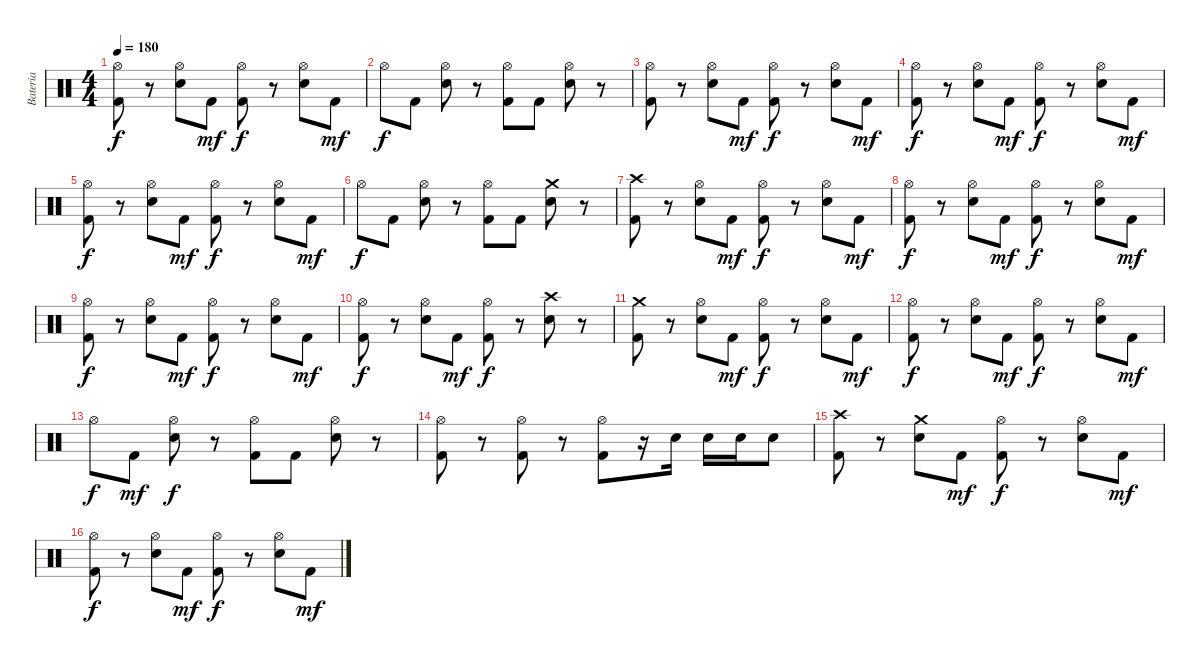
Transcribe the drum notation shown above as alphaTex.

\track ("Bateria" "Bateria") {instrument percussion}
\staff {score}
\articulation defaults
\ts (4 4)
\tempo 180
\clef neutral
\ks c
("Hi-Hat (open)" "Kick (hit) 2").8{dy f} r.8 ("Hi-Hat (open)" "Electric Snare (hit)").8 "Kick (hit) 2".8{dy mf} ("Hi-Hat (open)" "Kick (hit) 2").8{dy f} r.8 ("Hi-Hat (open)" "Electric Snare (hit)").8 "Kick (hit) 2".8{dy mf} |
"Hi-Hat (open)".8{dy f} "Kick (hit) 2".8 ("Hi-Hat (open)" "Electric Snare (hit)").8 r.8 ("Hi-Hat (open)" "Kick (hit) 2").8 "Kick (hit) 2".8 ("Hi-Hat (open)" "Electric Snare (hit)").8 r.8 |
("Hi-Hat (open)" "Kick (hit) 2").8 r.8 ("Hi-Hat (open)" "Electric Snare (hit)").8 "Kick (hit) 2".8{dy mf} ("Hi-Hat (open)" "Kick (hit) 2").8{dy f} r.8 ("Hi-Hat (open)" "Electric Snare (hit)").8 "Kick (hit) 2".8{dy mf} |
("Hi-Hat (open)" "Kick (hit) 2").8{dy f} r.8 ("Hi-Hat (open)" "Electric Snare (hit)").8 "Kick (hit) 2".8{dy mf} ("Hi-Hat (open)" "Kick (hit) 2").8{dy f} r.8 ("Hi-Hat (open)" "Electric Snare (hit)").8 "Kick (hit) 2".8{dy mf} |
("Hi-Hat (open)" "Kick (hit) 2").8{dy f} r.8 ("Hi-Hat (open)" "Electric Snare (hit)").8 "Kick (hit) 2".8{dy mf} ("Hi-Hat (open)" "Kick (hit) 2").8{dy f} r.8 ("Hi-Hat (open)" "Electric Snare (hit)").8 "Kick (hit) 2".8{dy mf} |
"Hi-Hat (open)".8{dy f} "Kick (hit) 2".8 ("Hi-Hat (open)" "Electric Snare (hit)").8 r.8 ("Hi-Hat (open)" "Kick (hit) 2").8 "Kick (hit) 2".8 ("Crash medium (hit)" "Electric Snare (hit)").8 r.8 |
("Crash high (hit)" "Kick (hit) 2").8 r.8 ("Hi-Hat (open)" "Electric Snare (hit)").8 "Kick (hit) 2".8{dy mf} ("Hi-Hat (open)" "Kick (hit) 2").8{dy f} r.8 ("Hi-Hat (open)" "Electric Snare (hit)").8 "Kick (hit) 2".8{dy mf} |
("Hi-Hat (open)" "Kick (hit) 2").8{dy f} r.8 ("Hi-Hat (open)" "Electric Snare (hit)").8 "Kick (hit) 2".8{dy mf} ("Hi-Hat (open)" "Kick (hit) 2").8{dy f} r.8 ("Hi-Hat (open)" "Electric Snare (hit)").8 "Kick (hit) 2".8{dy mf} |
("Hi-Hat (open)" "Kick (hit) 2").8{dy f} r.8 ("Hi-Hat (open)" "Electric Snare (hit)").8 "Kick (hit) 2".8{dy mf} ("Hi-Hat (open)" "Kick (hit) 2").8{dy f} r.8 ("Hi-Hat (open)" "Electric Snare (hit)").8 "Kick (hit) 2".8{dy mf} |
("Hi-Hat (open)" "Kick (hit) 2").8{dy f} r.8 ("Hi-Hat (open)" "Electric Snare (hit)").8 "Kick (hit) 2".8{dy mf} ("Hi-Hat (open)" "Kick (hit) 2").8{dy f} r.8 ("Crash high (hit)" "Electric Snare (hit)").8 r.8 |
("Crash medium (hit)" "Kick (hit) 2").8 r.8 ("Hi-Hat (open)" "Electric Snare (hit)").8 "Kick (hit) 2".8{dy mf} ("Hi-Hat (open)" "Kick (hit) 2").8{dy f} r.8 ("Hi-Hat (open)" "Electric Snare (hit)").8 "Kick (hit) 2".8{dy mf} |
("Hi-Hat (open)" "Kick (hit) 2").8{dy f} r.8 ("Hi-Hat (open)" "Electric Snare (hit)").8 "Kick (hit) 2".8{dy mf} ("Hi-Hat (open)" "Kick (hit) 2").8{dy f} r.8 ("Hi-Hat (open)" "Electric Snare (hit)").8 "Kick (hit) 2".8{dy mf} |
"Hi-Hat (open)".8{dy f} "Kick (hit) 2".8{dy mf} ("Hi-Hat (open)" "Electric Snare (hit)").8{dy f} r.8 ("Hi-Hat (open)" "Kick (hit) 2").8 "Kick (hit) 2".8 ("Hi-Hat (open)" "Electric Snare (hit)").8 r.8 |
("Hi-Hat (open)" "Kick (hit) 2").8 r.8 ("Hi-Hat (open)" "Kick (hit) 2").8 r.8 ("Hi-Hat (open)" "Kick (hit) 2").8 r.16 "Electric Snare (hit)".16 "Electric Snare (hit)".16 "Electric Snare (hit)".16 "Electric Snare (hit)".8 |
("Crash high (hit)" "Kick (hit) 2").8 r.8 ("Crash medium (hit)" "Electric Snare (hit)").8 "Kick (hit) 2".8{dy mf} ("Hi-Hat (open)" "Kick (hit) 2").8{dy f} r.8 ("Hi-Hat (open)" "Electric Snare (hit)").8 "Kick (hit) 2".8{dy mf} |
("Hi-Hat (open)" "Kick (hit) 2").8{dy f} r.8 ("Hi-Hat (open)" "Electric Snare (hit)").8 "Kick (hit) 2".8{dy mf} ("Hi-Hat (open)" "Kick (hit) 2").8{dy f} r.8 ("Hi-Hat (open)" "Electric Snare (hit)").8 "Kick (hit) 2".8{dy mf}
